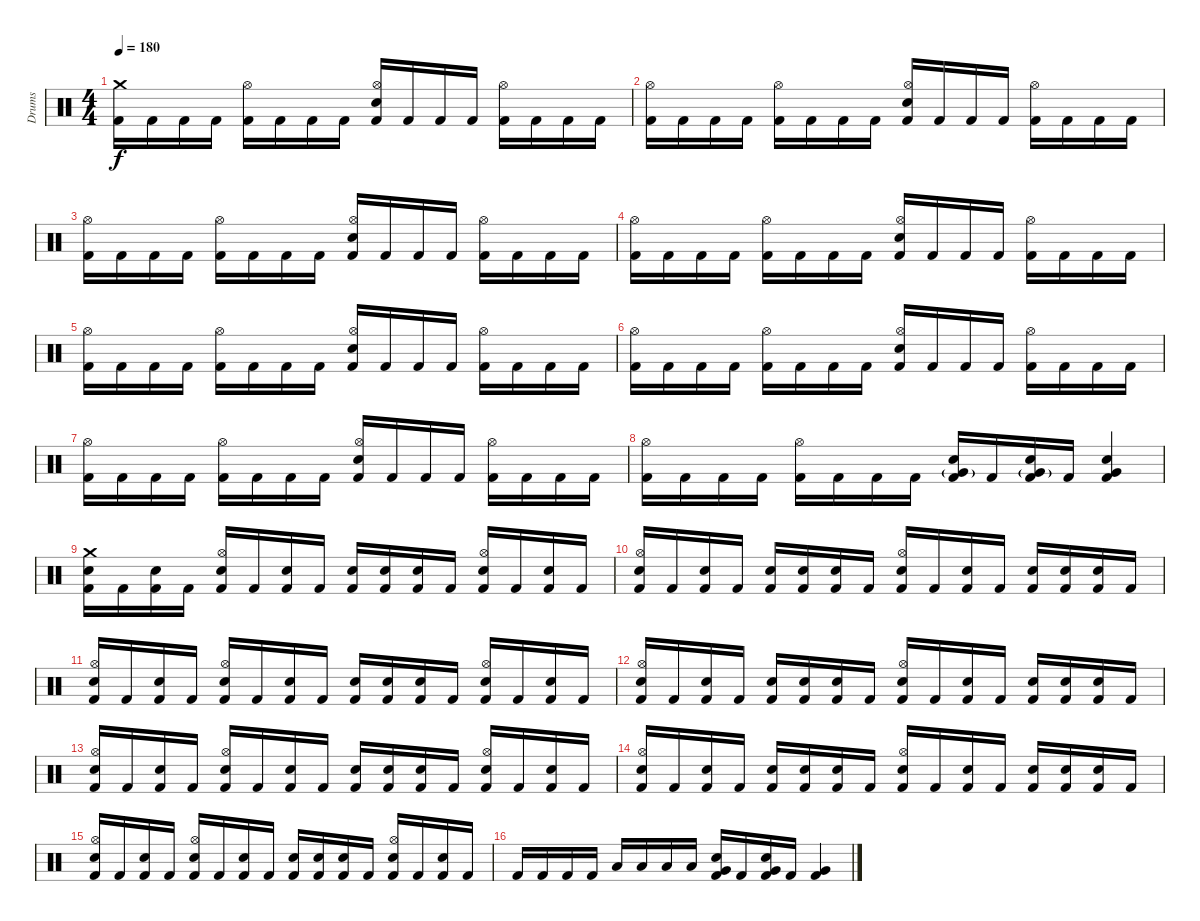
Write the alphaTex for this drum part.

\track ("Drums" "Drums") {instrument percussion}
\staff {score}
\articulation defaults
\ts (4 4)
\tempo 180
\clef neutral
\ks c
("Crash medium (hit)" "Kick (hit) 2").16{dy f} "Kick (hit) 2".16 "Kick (hit) 2".16 "Kick (hit) 2".16 ("Hi-Hat (open)" "Kick (hit) 2").16 "Kick (hit) 2".16 "Kick (hit) 2".16 "Kick (hit) 2".16 ("Hi-Hat (open)" "Electric Snare (hit)" "Kick (hit) 2").16 "Kick (hit) 2".16 "Kick (hit) 2".16 "Kick (hit) 2".16 ("Hi-Hat (open)" "Kick (hit) 2").16 "Kick (hit) 2".16 "Kick (hit) 2".16 "Kick (hit) 2".16 |
("Hi-Hat (open)" "Kick (hit) 2").16 "Kick (hit) 2".16 "Kick (hit) 2".16 "Kick (hit) 2".16 ("Hi-Hat (open)" "Kick (hit) 2").16 "Kick (hit) 2".16 "Kick (hit) 2".16 "Kick (hit) 2".16 ("Hi-Hat (open)" "Electric Snare (hit)" "Kick (hit) 2").16 "Kick (hit) 2".16 "Kick (hit) 2".16 "Kick (hit) 2".16 ("Hi-Hat (open)" "Kick (hit) 2").16 "Kick (hit) 2".16 "Kick (hit) 2".16 "Kick (hit) 2".16 |
("Hi-Hat (open)" "Kick (hit) 2").16 "Kick (hit) 2".16 "Kick (hit) 2".16 "Kick (hit) 2".16 ("Hi-Hat (open)" "Kick (hit) 2").16 "Kick (hit) 2".16 "Kick (hit) 2".16 "Kick (hit) 2".16 ("Hi-Hat (open)" "Electric Snare (hit)" "Kick (hit) 2").16 "Kick (hit) 2".16 "Kick (hit) 2".16 "Kick (hit) 2".16 ("Hi-Hat (open)" "Kick (hit) 2").16 "Kick (hit) 2".16 "Kick (hit) 2".16 "Kick (hit) 2".16 |
("Hi-Hat (open)" "Kick (hit) 2").16 "Kick (hit) 2".16 "Kick (hit) 2".16 "Kick (hit) 2".16 ("Hi-Hat (open)" "Kick (hit) 2").16 "Kick (hit) 2".16 "Kick (hit) 2".16 "Kick (hit) 2".16 ("Hi-Hat (open)" "Electric Snare (hit)" "Kick (hit) 2").16 "Kick (hit) 2".16 "Kick (hit) 2".16 "Kick (hit) 2".16 ("Hi-Hat (open)" "Kick (hit) 2").16 "Kick (hit) 2".16 "Kick (hit) 2".16 "Kick (hit) 2".16 |
("Hi-Hat (open)" "Kick (hit) 2").16 "Kick (hit) 2".16 "Kick (hit) 2".16 "Kick (hit) 2".16 ("Hi-Hat (open)" "Kick (hit) 2").16 "Kick (hit) 2".16 "Kick (hit) 2".16 "Kick (hit) 2".16 ("Hi-Hat (open)" "Electric Snare (hit)" "Kick (hit) 2").16 "Kick (hit) 2".16 "Kick (hit) 2".16 "Kick (hit) 2".16 ("Hi-Hat (open)" "Kick (hit) 2").16 "Kick (hit) 2".16 "Kick (hit) 2".16 "Kick (hit) 2".16 |
("Hi-Hat (open)" "Kick (hit) 2").16 "Kick (hit) 2".16 "Kick (hit) 2".16 "Kick (hit) 2".16 ("Hi-Hat (open)" "Kick (hit) 2").16 "Kick (hit) 2".16 "Kick (hit) 2".16 "Kick (hit) 2".16 ("Hi-Hat (open)" "Electric Snare (hit)" "Kick (hit) 2").16 "Kick (hit) 2".16 "Kick (hit) 2".16 "Kick (hit) 2".16 ("Hi-Hat (open)" "Kick (hit) 2").16 "Kick (hit) 2".16 "Kick (hit) 2".16 "Kick (hit) 2".16 |
("Hi-Hat (open)" "Kick (hit) 2").16 "Kick (hit) 2".16 "Kick (hit) 2".16 "Kick (hit) 2".16 ("Hi-Hat (open)" "Kick (hit) 2").16 "Kick (hit) 2".16 "Kick (hit) 2".16 "Kick (hit) 2".16 ("Hi-Hat (open)" "Electric Snare (hit)" "Kick (hit) 2").16 "Kick (hit) 2".16 "Kick (hit) 2".16 "Kick (hit) 2".16 ("Hi-Hat (open)" "Kick (hit) 2").16 "Kick (hit) 2".16 "Kick (hit) 2".16 "Kick (hit) 2".16 |
("Hi-Hat (open)" "Kick (hit) 2").16 "Kick (hit) 2".16 "Kick (hit) 2".16 "Kick (hit) 2".16 ("Hi-Hat (open)" "Kick (hit) 2").16 "Kick (hit) 2".16 "Kick (hit) 2".16 "Kick (hit) 2".16 ("Very Low Tom (hit)"{g} "Electric Snare (hit)" "Kick (hit) 2").16 "Kick (hit) 2".16 ("Very Low Tom (hit)"{g} "Electric Snare (hit)" "Kick (hit) 2").16 "Kick (hit) 2".16 ("Very Low Tom (hit)" "Electric Snare (hit)" "Kick (hit) 2").4 |
("Crash medium (hit)" "Electric Snare (hit)" "Kick (hit) 2").16 "Kick (hit) 2".16 ("Electric Snare (hit)" "Kick (hit) 2").16 "Kick (hit) 2".16 ("Hi-Hat (open)" "Electric Snare (hit)" "Kick (hit) 2").16 "Kick (hit) 2".16 ("Electric Snare (hit)" "Kick (hit) 2").16 "Kick (hit) 2".16 ("Electric Snare (hit)" "Kick (hit) 2").16 ("Electric Snare (hit)" "Kick (hit) 2").16 ("Electric Snare (hit)" "Kick (hit) 2").16 "Kick (hit) 2".16 ("Hi-Hat (open)" "Electric Snare (hit)" "Kick (hit) 2").16 "Kick (hit) 2".16 ("Electric Snare (hit)" "Kick (hit) 2").16 "Kick (hit) 2".16 |
("Hi-Hat (open)" "Electric Snare (hit)" "Kick (hit) 2").16 "Kick (hit) 2".16 ("Electric Snare (hit)" "Kick (hit) 2").16 "Kick (hit) 2".16 ("Electric Snare (hit)" "Kick (hit) 2").16 ("Electric Snare (hit)" "Kick (hit) 2").16 ("Electric Snare (hit)" "Kick (hit) 2").16 "Kick (hit) 2".16 ("Hi-Hat (open)" "Electric Snare (hit)" "Kick (hit) 2").16 "Kick (hit) 2".16 ("Electric Snare (hit)" "Kick (hit) 2").16 "Kick (hit) 2".16 ("Electric Snare (hit)" "Kick (hit) 2").16 ("Electric Snare (hit)" "Kick (hit) 2").16 ("Electric Snare (hit)" "Kick (hit) 2").16 "Kick (hit) 2".16 |
("Hi-Hat (open)" "Electric Snare (hit)" "Kick (hit) 2").16 "Kick (hit) 2".16 ("Electric Snare (hit)" "Kick (hit) 2").16 "Kick (hit) 2".16 ("Hi-Hat (open)" "Electric Snare (hit)" "Kick (hit) 2").16 "Kick (hit) 2".16 ("Electric Snare (hit)" "Kick (hit) 2").16 "Kick (hit) 2".16 ("Electric Snare (hit)" "Kick (hit) 2").16 ("Electric Snare (hit)" "Kick (hit) 2").16 ("Electric Snare (hit)" "Kick (hit) 2").16 "Kick (hit) 2".16 ("Hi-Hat (open)" "Electric Snare (hit)" "Kick (hit) 2").16 "Kick (hit) 2".16 ("Electric Snare (hit)" "Kick (hit) 2").16 "Kick (hit) 2".16 |
("Hi-Hat (open)" "Electric Snare (hit)" "Kick (hit) 2").16 "Kick (hit) 2".16 ("Electric Snare (hit)" "Kick (hit) 2").16 "Kick (hit) 2".16 ("Electric Snare (hit)" "Kick (hit) 2").16 ("Electric Snare (hit)" "Kick (hit) 2").16 ("Electric Snare (hit)" "Kick (hit) 2").16 "Kick (hit) 2".16 ("Hi-Hat (open)" "Electric Snare (hit)" "Kick (hit) 2").16 "Kick (hit) 2".16 ("Electric Snare (hit)" "Kick (hit) 2").16 "Kick (hit) 2".16 ("Electric Snare (hit)" "Kick (hit) 2").16 ("Electric Snare (hit)" "Kick (hit) 2").16 ("Electric Snare (hit)" "Kick (hit) 2").16 "Kick (hit) 2".16 |
("Hi-Hat (open)" "Electric Snare (hit)" "Kick (hit) 2").16 "Kick (hit) 2".16 ("Electric Snare (hit)" "Kick (hit) 2").16 "Kick (hit) 2".16 ("Hi-Hat (open)" "Electric Snare (hit)" "Kick (hit) 2").16 "Kick (hit) 2".16 ("Electric Snare (hit)" "Kick (hit) 2").16 "Kick (hit) 2".16 ("Electric Snare (hit)" "Kick (hit) 2").16 ("Electric Snare (hit)" "Kick (hit) 2").16 ("Electric Snare (hit)" "Kick (hit) 2").16 "Kick (hit) 2".16 ("Hi-Hat (open)" "Electric Snare (hit)" "Kick (hit) 2").16 "Kick (hit) 2".16 ("Electric Snare (hit)" "Kick (hit) 2").16 "Kick (hit) 2".16 |
("Hi-Hat (open)" "Electric Snare (hit)" "Kick (hit) 2").16 "Kick (hit) 2".16 ("Electric Snare (hit)" "Kick (hit) 2").16 "Kick (hit) 2".16 ("Electric Snare (hit)" "Kick (hit) 2").16 ("Electric Snare (hit)" "Kick (hit) 2").16 ("Electric Snare (hit)" "Kick (hit) 2").16 "Kick (hit) 2".16 ("Hi-Hat (open)" "Electric Snare (hit)" "Kick (hit) 2").16 "Kick (hit) 2".16 ("Electric Snare (hit)" "Kick (hit) 2").16 "Kick (hit) 2".16 ("Electric Snare (hit)" "Kick (hit) 2").16 ("Electric Snare (hit)" "Kick (hit) 2").16 ("Electric Snare (hit)" "Kick (hit) 2").16 "Kick (hit) 2".16 |
("Hi-Hat (open)" "Electric Snare (hit)" "Kick (hit) 2").16 "Kick (hit) 2".16 ("Electric Snare (hit)" "Kick (hit) 2").16 "Kick (hit) 2".16 ("Hi-Hat (open)" "Electric Snare (hit)" "Kick (hit) 2").16 "Kick (hit) 2".16 ("Electric Snare (hit)" "Kick (hit) 2").16 "Kick (hit) 2".16 ("Electric Snare (hit)" "Kick (hit) 2").16 ("Electric Snare (hit)" "Kick (hit) 2").16 ("Electric Snare (hit)" "Kick (hit) 2").16 "Kick (hit) 2".16 ("Hi-Hat (open)" "Electric Snare (hit)" "Kick (hit) 2").16 "Kick (hit) 2".16 ("Electric Snare (hit)" "Kick (hit) 2").16 "Kick (hit) 2".16 |
"Kick (hit) 2".16 "Kick (hit) 2".16 "Kick (hit) 2".16 "Kick (hit) 2".16 "Low Tom (hit)".16 "Low Tom (hit)".16 "Low Tom (hit)".16 "Low Tom (hit)".16 ("Very Low Tom (hit)" "Electric Snare (hit)" "Kick (hit) 2").16 "Kick (hit) 2".16 ("Very Low Tom (hit)" "Electric Snare (hit)" "Kick (hit) 2").16 "Kick (hit) 2".16 ("Very Low Tom (hit)" "Kick (hit) 2").4
